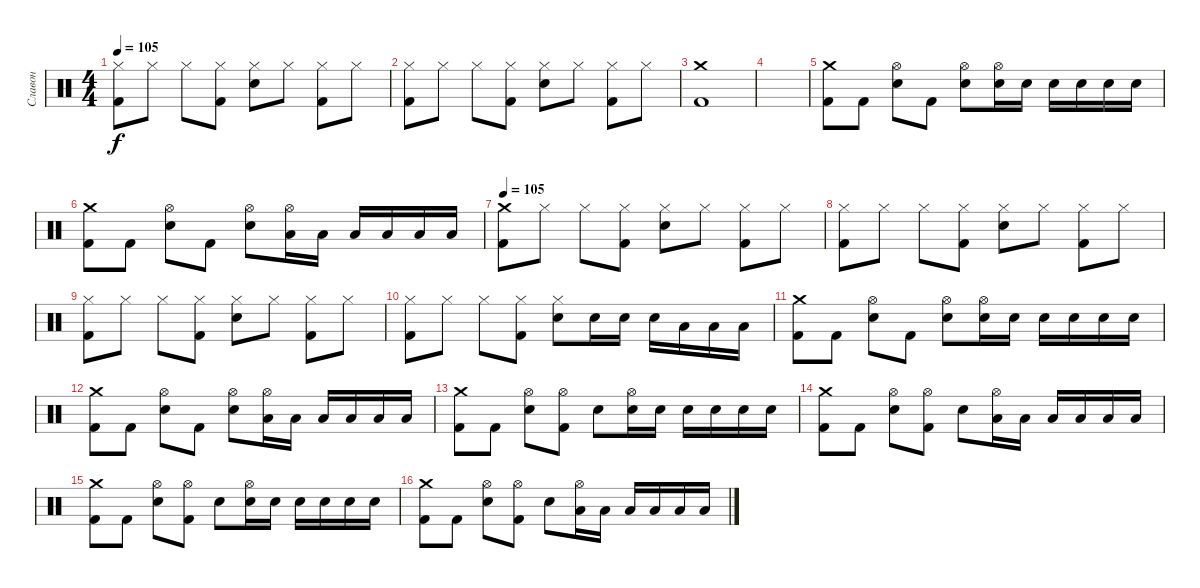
\track ("Славон" "Славон") {instrument percussion}
\staff {score}
\articulation defaults
\ts (4 4)
\tempo 105
\clef neutral
\ks c
("Hi-Hat (closed)" "Kick (hit) 2").8{dy f} "Hi-Hat (closed)".8 "Hi-Hat (closed)".8 ("Hi-Hat (closed)" "Kick (hit) 2").8 ("Hi-Hat (closed)" "Snare (hit) 2").8 "Hi-Hat (closed)".8 ("Hi-Hat (closed)" "Kick (hit) 2").8 "Hi-Hat (closed)".8 |
("Hi-Hat (closed)" "Kick (hit) 2").8 "Hi-Hat (closed)".8 "Hi-Hat (closed)".8 ("Hi-Hat (closed)" "Kick (hit) 2").8 ("Hi-Hat (closed)" "Snare (hit) 2").8 "Hi-Hat (closed)".8 ("Hi-Hat (closed)" "Kick (hit) 2").8 "Hi-Hat (closed)".8 |
("Crash medium (hit)" "Kick (hit) 2").1 |
|
("Crash medium (hit)" "Kick (hit) 2").8 "Kick (hit) 2".8 ("Hi-Hat (open)" "Snare (hit) 2").8 "Kick (hit) 2".8 ("Hi-Hat (open)" "Snare (hit) 2").8 ("Hi-Hat (open)" "Snare (hit) 2").16 "Snare (hit) 2".16 "Snare (hit) 2".16 "Snare (hit) 2".16 "Snare (hit) 2".16 "Snare (hit) 2".16 |
("Crash medium (hit)" "Kick (hit) 2").8 "Kick (hit) 2".8 ("Hi-Hat (open)" "Snare (hit) 2").8 "Kick (hit) 2".8 ("Hi-Hat (open)" "Snare (hit) 2").8 ("Hi-Hat (open)" "Low Tom (hit)").16 "Low Tom (hit)".16 "Low Tom (hit)".16 "Low Tom (hit)".16 "Low Tom (hit)".16 "Low Tom (hit)".16 |
\tempo 105
("Crash medium (hit)" "Kick (hit) 2").8 "Hi-Hat (closed)".8 "Hi-Hat (closed)".8 ("Hi-Hat (closed)" "Kick (hit) 2").8 ("Hi-Hat (closed)" "Snare (hit) 2").8 "Hi-Hat (closed)".8 ("Hi-Hat (closed)" "Kick (hit) 2").8 "Hi-Hat (closed)".8 |
("Hi-Hat (closed)" "Kick (hit) 2").8 "Hi-Hat (closed)".8 "Hi-Hat (closed)".8 ("Hi-Hat (closed)" "Kick (hit) 2").8 ("Hi-Hat (closed)" "Snare (hit) 2").8 "Hi-Hat (closed)".8 ("Hi-Hat (closed)" "Kick (hit) 2").8 "Hi-Hat (closed)".8 |
("Hi-Hat (closed)" "Kick (hit) 2").8 "Hi-Hat (closed)".8 "Hi-Hat (closed)".8 ("Hi-Hat (closed)" "Kick (hit) 2").8 ("Hi-Hat (closed)" "Snare (hit) 2").8 "Hi-Hat (closed)".8 ("Hi-Hat (closed)" "Kick (hit) 2").8 "Hi-Hat (closed)".8 |
("Hi-Hat (closed)" "Kick (hit) 2").8 "Hi-Hat (closed)".8 "Hi-Hat (closed)".8 ("Hi-Hat (closed)" "Kick (hit) 2").8 ("Hi-Hat (closed)" "Snare (hit) 2").8 "Snare (hit) 2".16 "Snare (hit) 2".16 "Snare (hit) 2".16 "Low Tom (hit)".16 "Low Tom (hit)".16 "Low Tom (hit)".16 |
("Crash medium (hit)" "Kick (hit) 2").8 "Kick (hit) 2".8 ("Hi-Hat (open)" "Snare (hit) 2").8 "Kick (hit) 2".8 ("Hi-Hat (open)" "Snare (hit) 2").8 ("Hi-Hat (open)" "Snare (hit) 2").16 "Snare (hit) 2".16 "Snare (hit) 2".16 "Snare (hit) 2".16 "Snare (hit) 2".16 "Snare (hit) 2".16 |
("Crash medium (hit)" "Kick (hit) 2").8 "Kick (hit) 2".8 ("Hi-Hat (open)" "Snare (hit) 2").8 "Kick (hit) 2".8 ("Hi-Hat (open)" "Snare (hit) 2").8 ("Hi-Hat (open)" "Low Tom (hit)").16 "Low Tom (hit)".16 "Low Tom (hit)".16 "Low Tom (hit)".16 "Low Tom (hit)".16 "Low Tom (hit)".16 |
("Crash medium (hit)" "Kick (hit) 2").8 "Kick (hit) 2".8 ("Hi-Hat (open)" "Snare (hit) 2").8 ("Hi-Hat (open)" "Kick (hit) 2").8 "Snare (hit) 2".8 ("Hi-Hat (open)" "Snare (hit) 2").16 "Snare (hit) 2".16 "Snare (hit) 2".16 "Snare (hit) 2".16 "Snare (hit) 2".16 "Snare (hit) 2".16 |
("Crash medium (hit)" "Kick (hit) 2").8 "Kick (hit) 2".8 ("Hi-Hat (open)" "Snare (hit) 2").8 ("Hi-Hat (open)" "Kick (hit) 2").8 "Snare (hit) 2".8 ("Hi-Hat (open)" "Low Tom (hit)").16 "Low Tom (hit)".16 "Low Tom (hit)".16 "Low Tom (hit)".16 "Low Tom (hit)".16 "Low Tom (hit)".16 |
("Crash medium (hit)" "Kick (hit) 2").8 "Kick (hit) 2".8 ("Hi-Hat (open)" "Snare (hit) 2").8 ("Hi-Hat (open)" "Kick (hit) 2").8 "Snare (hit) 2".8 ("Hi-Hat (open)" "Snare (hit) 2").16 "Snare (hit) 2".16 "Snare (hit) 2".16 "Snare (hit) 2".16 "Snare (hit) 2".16 "Snare (hit) 2".16 |
("Crash medium (hit)" "Kick (hit) 2").8 "Kick (hit) 2".8 ("Hi-Hat (open)" "Snare (hit) 2").8 ("Hi-Hat (open)" "Kick (hit) 2").8 "Snare (hit) 2".8 ("Hi-Hat (open)" "Low Tom (hit)").16 "Low Tom (hit)".16 "Low Tom (hit)".16 "Low Tom (hit)".16 "Low Tom (hit)".16 "Low Tom (hit)".16
